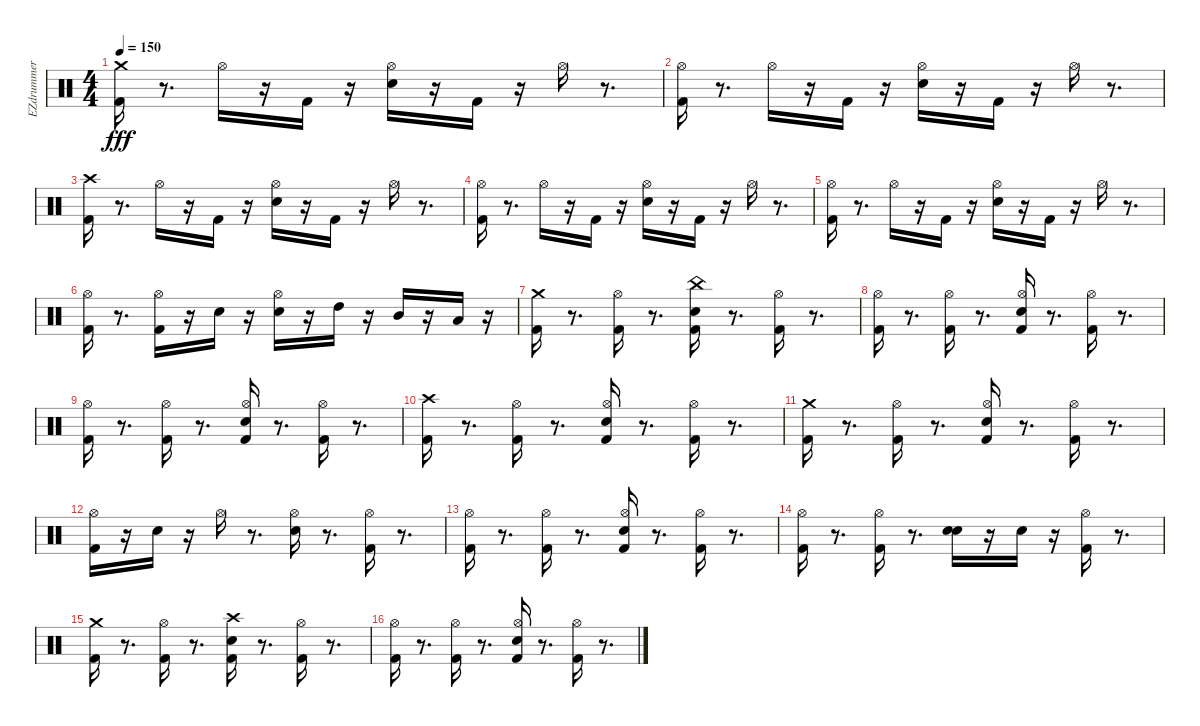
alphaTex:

\track ("EZdrummer 01" "EZdrummer ") {instrument percussion}
\staff {score}
\articulation defaults
\ts (4 4)
\tempo 150
\clef neutral
\ks c
("Kick (hit) 2" "Crash medium (hit)").16{dy fff} r.8{d} "Hi-Hat (open)".16 r.16 "Kick (hit) 2".16 r.16 ("Electric Snare (hit)" "Hi-Hat (open)").16 r.16 "Kick (hit) 2".16 r.16 "Hi-Hat (open)".16 r.8{d} |
("Kick (hit) 2" "Hi-Hat (open)").16 r.8{d} "Hi-Hat (open)".16 r.16 "Kick (hit) 2".16 r.16 ("Electric Snare (hit)" "Hi-Hat (open)").16 r.16 "Kick (hit) 2".16 r.16 "Hi-Hat (open)".16 r.8{d} |
("Kick (hit) 2" "Crash high (hit)").16 r.8{d} "Hi-Hat (open)".16 r.16 "Kick (hit) 2".16 r.16 ("Electric Snare (hit)" "Hi-Hat (open)").16 r.16 "Kick (hit) 2".16 r.16 "Hi-Hat (open)".16 r.8{d} |
("Kick (hit) 2" "Hi-Hat (open)").16 r.8{d} "Hi-Hat (open)".16 r.16 "Kick (hit) 2".16 r.16 ("Electric Snare (hit)" "Hi-Hat (open)").16 r.16 "Kick (hit) 2".16 r.16 "Hi-Hat (open)".16 r.8{d} |
("Kick (hit) 2" "Hi-Hat (open)").16 r.8{d} "Hi-Hat (open)".16 r.16 "Kick (hit) 2".16 r.16 ("Electric Snare (hit)" "Hi-Hat (open)").16 r.16 "Kick (hit) 2".16 r.16 "Hi-Hat (open)".16 r.8{d} |
("Kick (hit) 2" "Hi-Hat (open)").16 r.8{d} ("Kick (hit) 2" "Hi-Hat (open)").16 r.16 "Electric Snare (hit)".16 r.16 ("Electric Snare (hit)" "Hi-Hat (open)").16 r.16 "High Tom (hit)".16 r.16 "Mid Tom (hit)".16 r.16 "Low Tom (hit)".16 r.16 |
("Kick (hit) 2" "Crash medium (hit)").16 r.8{d} ("Kick (hit) 2" "Hi-Hat (open)").16 r.8{d} ("Kick (hit) 2" "Electric Snare (hit)" "China (hit)").16 r.8{d} ("Kick (hit) 2" "Hi-Hat (open)").16 r.8{d} |
("Kick (hit) 2" "Hi-Hat (open)").16 r.8{d} ("Kick (hit) 2" "Hi-Hat (open)").16 r.8{d} ("Kick (hit) 2" "Electric Snare (hit)" "Hi-Hat (open)").16 r.8{d} ("Kick (hit) 2" "Hi-Hat (open)").16 r.8{d} |
("Kick (hit) 2" "Hi-Hat (open)").16 r.8{d} ("Kick (hit) 2" "Hi-Hat (open)").16 r.8{d} ("Kick (hit) 2" "Electric Snare (hit)" "Hi-Hat (open)").16 r.8{d} ("Kick (hit) 2" "Hi-Hat (open)").16 r.8{d} |
("Kick (hit) 2" "Crash high (hit)").16 r.8{d} ("Kick (hit) 2" "Hi-Hat (open)").16 r.8{d} ("Kick (hit) 2" "Electric Snare (hit)" "Hi-Hat (open)").16 r.8{d} ("Kick (hit) 2" "Hi-Hat (open)").16 r.8{d} |
("Kick (hit) 2" "Crash medium (hit)").16 r.8{d} ("Kick (hit) 2" "Hi-Hat (open)").16 r.8{d} ("Kick (hit) 2" "Electric Snare (hit)" "Hi-Hat (open)").16 r.8{d} ("Kick (hit) 2" "Hi-Hat (open)").16 r.8{d} |
("Kick (hit) 2" "Hi-Hat (open)").16 r.16 "Electric Snare (hit)".16 r.16 "Hi-Hat (open)".16 r.8{d} ("Electric Snare (hit)" "Hi-Hat (open)").16 r.8{d} ("Kick (hit) 2" "Hi-Hat (open)").16 r.8{d} |
("Kick (hit) 2" "Hi-Hat (open)").16 r.8{d} ("Kick (hit) 2" "Hi-Hat (open)").16 r.8{d} ("Kick (hit) 2" "Electric Snare (hit)" "Hi-Hat (open)").16 r.8{d} ("Kick (hit) 2" "Hi-Hat (open)").16 r.8{d} |
("Kick (hit) 2" "Hi-Hat (open)").16 r.8{d} ("Kick (hit) 2" "Hi-Hat (open)").16 r.8{d} ("Electric Snare (hit)" "Electric Snare (hit)").16 r.16 "Electric Snare (hit)".16 r.16 ("Kick (hit) 2" "Hi-Hat (open)").16 r.8{d} |
("Kick (hit) 2" "Crash medium (hit)").16 r.8{d} ("Kick (hit) 2" "Hi-Hat (open)").16 r.8{d} ("Kick (hit) 2" "Electric Snare (hit)" "Crash high (hit)").16 r.8{d} ("Kick (hit) 2" "Hi-Hat (open)").16 r.8{d} |
("Kick (hit) 2" "Hi-Hat (open)").16 r.8{d} ("Kick (hit) 2" "Hi-Hat (open)").16 r.8{d} ("Kick (hit) 2" "Electric Snare (hit)" "Hi-Hat (open)").16 r.8{d} ("Kick (hit) 2" "Hi-Hat (open)").16 r.8{d}
